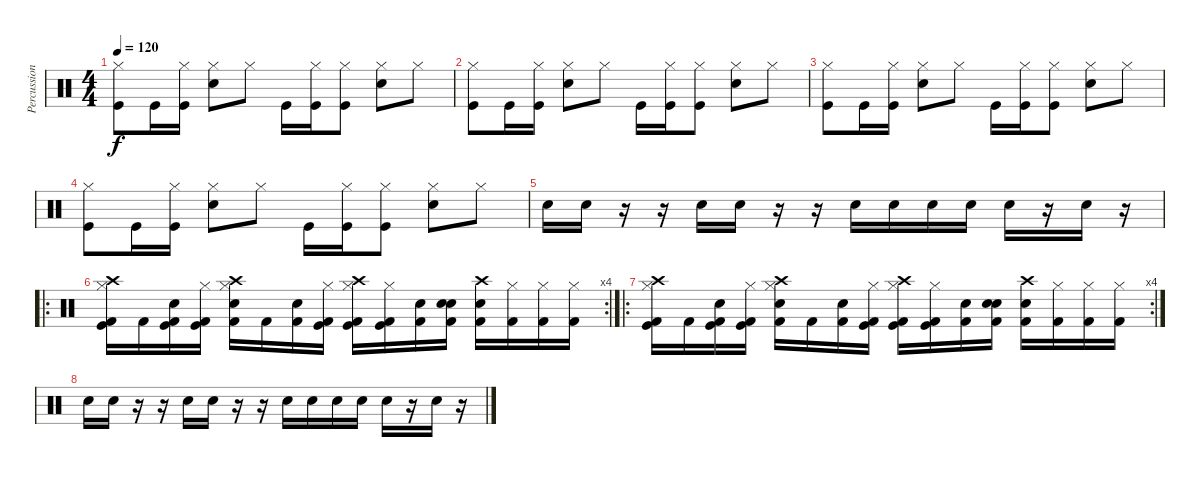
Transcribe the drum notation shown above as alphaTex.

\track ("Percussions" "Percussion") {instrument percussion}
\staff {score}
\articulation defaults
\ts (4 4)
\tempo 120
\clef neutral
\ks c
("Hi-Hat (closed)" "Kick (hit)").8{dy f} "Kick (hit)".16 ("Hi-Hat (closed)" "Kick (hit)").16 ("Hi-Hat (closed)" "Snare (hit) 2").8 "Hi-Hat (closed)".8 "Kick (hit)".16 ("Hi-Hat (closed)" "Kick (hit)").16 ("Hi-Hat (closed)" "Kick (hit)").8 ("Hi-Hat (closed)" "Snare (hit) 2").8 "Hi-Hat (closed)".8 |
("Hi-Hat (closed)" "Kick (hit)").8 "Kick (hit)".16 ("Hi-Hat (closed)" "Kick (hit)").16 ("Hi-Hat (closed)" "Snare (hit) 2").8 "Hi-Hat (closed)".8 "Kick (hit)".16 ("Hi-Hat (closed)" "Kick (hit)").16 ("Hi-Hat (closed)" "Kick (hit)").8 ("Hi-Hat (closed)" "Snare (hit) 2").8 "Hi-Hat (closed)".8 |
("Hi-Hat (closed)" "Kick (hit)").8 "Kick (hit)".16 ("Hi-Hat (closed)" "Kick (hit)").16 ("Hi-Hat (closed)" "Snare (hit) 2").8 "Hi-Hat (closed)".8 "Kick (hit)".16 ("Hi-Hat (closed)" "Kick (hit)").16 ("Hi-Hat (closed)" "Kick (hit)").8 ("Hi-Hat (closed)" "Snare (hit) 2").8 "Hi-Hat (closed)".8 |
("Hi-Hat (closed)" "Kick (hit)").8 "Kick (hit)".16 ("Hi-Hat (closed)" "Kick (hit)").16 ("Hi-Hat (closed)" "Snare (hit) 2").8 "Hi-Hat (closed)".8 "Kick (hit)".16 ("Hi-Hat (closed)" "Kick (hit)").16 ("Hi-Hat (closed)" "Kick (hit)").8 ("Hi-Hat (closed)" "Snare (hit) 2").8 "Hi-Hat (closed)".8 |
"Snare (hit) 2".16 "Snare (hit) 2".16 r.16 r.16 "Snare (hit) 2".16 "Snare (hit) 2".16 r.16 r.16 "Snare (hit) 2".16 "Snare (hit) 2".16 "Snare (hit) 2".16 "Snare (hit) 2".16 "Snare (hit) 2".16 r.16 "Snare (hit) 2".16 r.16 |
\ro
\rc 4
("Hi-Hat (closed)" "Crash high (hit)" "Kick (hit) 2" "Kick (hit)").16 "Kick (hit) 2".16 ("Snare (hit)" "Kick (hit) 2" "Kick (hit)").16 ("Hi-Hat (closed)" "Kick (hit) 2" "Kick (hit)").16 ("Hi-Hat (closed)" "Crash high (hit)" "Snare (hit) 2" "Kick (hit) 2").16 "Kick (hit) 2".16 ("Snare (hit)" "Kick (hit) 2").16 ("Hi-Hat (closed)" "Kick (hit) 2" "Kick (hit)").16 ("Hi-Hat (closed)" "Crash high (hit)" "Kick (hit) 2" "Kick (hit)").16 ("Hi-Hat (closed)" "Kick (hit) 2" "Kick (hit)").16 ("Snare (hit)" "Kick (hit) 2").16 ("Snare (hit)" "Snare (hit) 2" "Kick (hit) 2").16 ("Snare (hit)" "Crash high (hit)" "Kick (hit) 2").16 ("Hi-Hat (closed)" "Kick (hit) 2").16 ("Hi-Hat (closed)" "Kick (hit) 2").16 ("Hi-Hat (closed)" "Kick (hit) 2").16 |
\ro
\rc 4
("Hi-Hat (closed)" "Crash high (hit)" "Kick (hit) 2" "Kick (hit)").16 "Kick (hit) 2".16 ("Snare (hit)" "Kick (hit) 2" "Kick (hit)").16 ("Hi-Hat (closed)" "Kick (hit) 2" "Kick (hit)").16 ("Hi-Hat (closed)" "Crash high (hit)" "Snare (hit) 2" "Kick (hit) 2").16 "Kick (hit) 2".16 ("Snare (hit)" "Kick (hit) 2").16 ("Hi-Hat (closed)" "Kick (hit) 2" "Kick (hit)").16 ("Hi-Hat (closed)" "Crash high (hit)" "Kick (hit) 2" "Kick (hit)").16 ("Hi-Hat (closed)" "Kick (hit) 2" "Kick (hit)").16 ("Snare (hit)" "Kick (hit) 2").16 ("Snare (hit)" "Snare (hit) 2" "Kick (hit) 2").16 ("Snare (hit)" "Crash high (hit)" "Kick (hit) 2").16 ("Hi-Hat (closed)" "Kick (hit) 2").16 ("Hi-Hat (closed)" "Kick (hit) 2").16 ("Hi-Hat (closed)" "Kick (hit) 2").16 |
"Snare (hit) 2".16 "Snare (hit) 2".16 r.16 r.16 "Snare (hit) 2".16 "Snare (hit) 2".16 r.16 r.16 "Snare (hit) 2".16 "Snare (hit) 2".16 "Snare (hit) 2".16 "Snare (hit) 2".16 "Snare (hit) 2".16 r.16 "Snare (hit) 2".16 r.16
